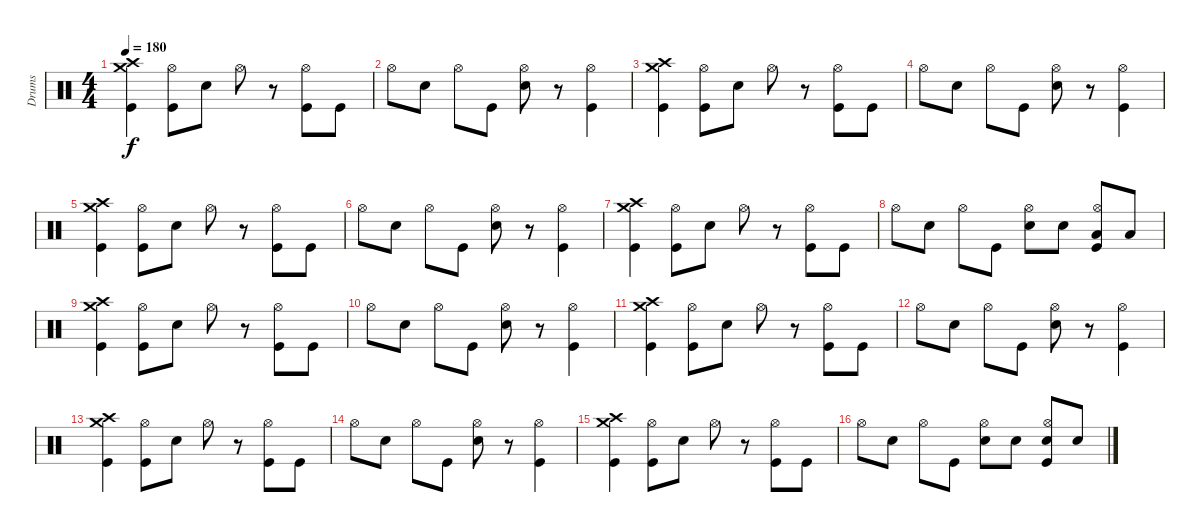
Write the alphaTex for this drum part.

\track ("Drums" "Drums") {instrument percussion}
\staff {score}
\articulation defaults
\ts (4 4)
\tempo 180
\clef neutral
\ks c
("Crash medium (hit)" "Crash high (hit)" "Kick (hit)").4{dy f} ("Hi-Hat (open)" "Kick (hit)").8 "Snare (hit) 2".8 "Hi-Hat (open)".8 r.8 ("Hi-Hat (open)" "Kick (hit)").8 "Kick (hit)".8 |
"Hi-Hat (open)".8 "Snare (hit) 2".8 "Hi-Hat (open)".8 "Kick (hit)".8 ("Hi-Hat (open)" "Snare (hit) 2").8 r.8 ("Hi-Hat (open)" "Kick (hit)").4 |
("Crash medium (hit)" "Crash high (hit)" "Kick (hit)").4 ("Hi-Hat (open)" "Kick (hit)").8 "Snare (hit) 2".8 "Hi-Hat (open)".8 r.8 ("Hi-Hat (open)" "Kick (hit)").8 "Kick (hit)".8 |
"Hi-Hat (open)".8 "Snare (hit) 2".8 "Hi-Hat (open)".8 "Kick (hit)".8 ("Hi-Hat (open)" "Snare (hit) 2").8 r.8 ("Hi-Hat (open)" "Kick (hit)").4 |
("Crash medium (hit)" "Crash high (hit)" "Kick (hit)").4 ("Hi-Hat (open)" "Kick (hit)").8 "Snare (hit) 2".8 "Hi-Hat (open)".8 r.8 ("Hi-Hat (open)" "Kick (hit)").8 "Kick (hit)".8 |
"Hi-Hat (open)".8 "Snare (hit) 2".8 "Hi-Hat (open)".8 "Kick (hit)".8 ("Hi-Hat (open)" "Snare (hit) 2").8 r.8 ("Hi-Hat (open)" "Kick (hit)").4 |
("Crash medium (hit)" "Crash high (hit)" "Kick (hit)").4 ("Hi-Hat (open)" "Kick (hit)").8 "Snare (hit) 2".8 "Hi-Hat (open)".8 r.8 ("Hi-Hat (open)" "Kick (hit)").8 "Kick (hit)".8 |
"Hi-Hat (open)".8 "Snare (hit) 2".8 "Hi-Hat (open)".8 "Kick (hit)".8 ("Hi-Hat (open)" "Snare (hit) 2").8 "Snare (hit) 2".8 ("Hi-Hat (open)" "Low Tom (hit)" "Kick (hit)").8 "Low Tom (hit)".8 |
("Crash medium (hit)" "Crash high (hit)" "Kick (hit)").4 ("Hi-Hat (open)" "Kick (hit)").8 "Snare (hit) 2".8 "Hi-Hat (open)".8 r.8 ("Hi-Hat (open)" "Kick (hit)").8 "Kick (hit)".8 |
"Hi-Hat (open)".8 "Snare (hit) 2".8 "Hi-Hat (open)".8 "Kick (hit)".8 ("Hi-Hat (open)" "Snare (hit) 2").8 r.8 ("Hi-Hat (open)" "Kick (hit)").4 |
("Crash medium (hit)" "Crash high (hit)" "Kick (hit)").4 ("Hi-Hat (open)" "Kick (hit)").8 "Snare (hit) 2".8 "Hi-Hat (open)".8 r.8 ("Hi-Hat (open)" "Kick (hit)").8 "Kick (hit)".8 |
"Hi-Hat (open)".8 "Snare (hit) 2".8 "Hi-Hat (open)".8 "Kick (hit)".8 ("Hi-Hat (open)" "Snare (hit) 2").8 r.8 ("Hi-Hat (open)" "Kick (hit)").4 |
("Crash medium (hit)" "Crash high (hit)" "Kick (hit)").4 ("Hi-Hat (open)" "Kick (hit)").8 "Snare (hit) 2".8 "Hi-Hat (open)".8 r.8 ("Hi-Hat (open)" "Kick (hit)").8 "Kick (hit)".8 |
"Hi-Hat (open)".8 "Snare (hit) 2".8 "Hi-Hat (open)".8 "Kick (hit)".8 ("Hi-Hat (open)" "Snare (hit) 2").8 r.8 ("Hi-Hat (open)" "Kick (hit)").4 |
("Crash medium (hit)" "Crash high (hit)" "Kick (hit)").4 ("Hi-Hat (open)" "Kick (hit)").8 "Snare (hit) 2".8 "Hi-Hat (open)".8 r.8 ("Hi-Hat (open)" "Kick (hit)").8 "Kick (hit)".8 |
"Hi-Hat (open)".8 "Snare (hit) 2".8 "Hi-Hat (open)".8 "Kick (hit)".8 ("Hi-Hat (open)" "Snare (hit) 2").8 "Snare (hit) 2".8 ("Snare (hit) 2" "Hi-Hat (open)" "Kick (hit)").8 "Snare (hit) 2".8
